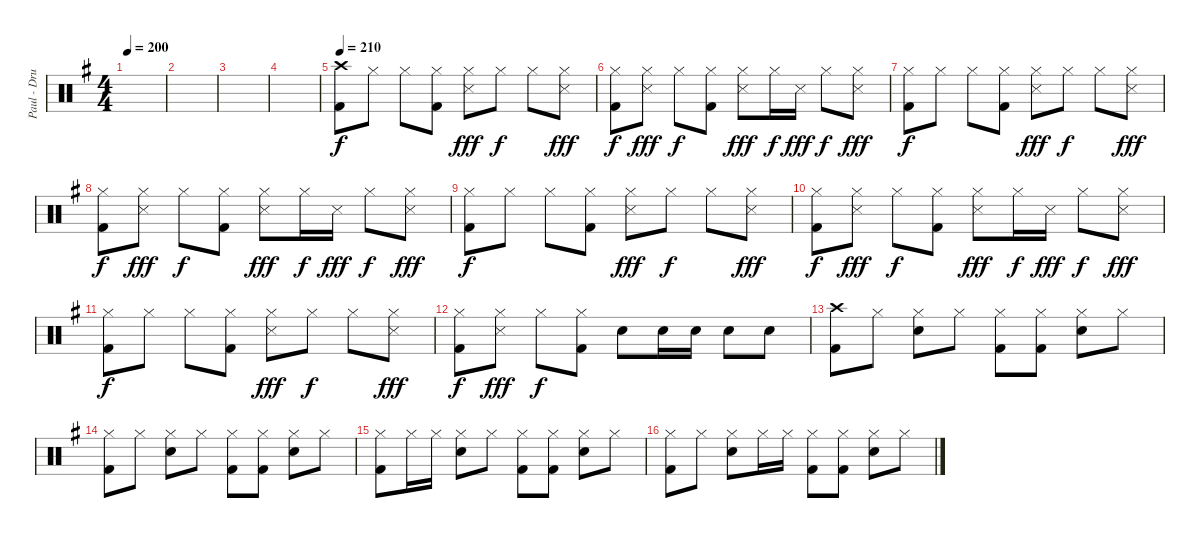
\track ("Paul - Drums" "Paul - Dru") {instrument percussion}
\staff {score}
\articulation defaults
\ts (4 4)
\tempo 200
\clef neutral
\ks g
|
|
|
|
\tempo 210
("Crash high (hit)" "Kick (hit) 2").8{dy f} "Hi-Hat (closed)".8 "Hi-Hat (closed)".8 ("Hi-Hat (closed)" "Kick (hit) 2").8 ("Hi-Hat (closed)" "Snare (side stick) 3").8{dy fff} "Hi-Hat (closed)".8{dy f} "Hi-Hat (closed)".8 ("Hi-Hat (closed)" "Snare (side stick) 3").8{dy fff} |
("Hi-Hat (closed)" "Kick (hit) 2").8{dy f} ("Hi-Hat (closed)" "Snare (side stick) 3").8{dy fff} "Hi-Hat (closed)".8{dy f} ("Hi-Hat (closed)" "Kick (hit) 2").8 ("Hi-Hat (closed)" "Snare (side stick) 3").8{dy fff} "Hi-Hat (closed)".16{dy f} "Snare (side stick) 3".16{dy fff} "Hi-Hat (closed)".8{dy f} ("Hi-Hat (closed)" "Snare (side stick) 3").8{dy fff} |
("Hi-Hat (closed)" "Kick (hit) 2").8{dy f} "Hi-Hat (closed)".8 "Hi-Hat (closed)".8 ("Hi-Hat (closed)" "Kick (hit) 2").8 ("Hi-Hat (closed)" "Snare (side stick) 3").8{dy fff} "Hi-Hat (closed)".8{dy f} "Hi-Hat (closed)".8 ("Hi-Hat (closed)" "Snare (side stick) 3").8{dy fff} |
("Hi-Hat (closed)" "Kick (hit) 2").8{dy f} ("Hi-Hat (closed)" "Snare (side stick) 3").8{dy fff} "Hi-Hat (closed)".8{dy f} ("Hi-Hat (closed)" "Kick (hit) 2").8 ("Hi-Hat (closed)" "Snare (side stick) 3").8{dy fff} "Hi-Hat (closed)".16{dy f} "Snare (side stick) 3".16{dy fff} "Hi-Hat (closed)".8{dy f} ("Hi-Hat (closed)" "Snare (side stick) 3").8{dy fff} |
("Hi-Hat (closed)" "Kick (hit) 2").8{dy f} "Hi-Hat (closed)".8 "Hi-Hat (closed)".8 ("Hi-Hat (closed)" "Kick (hit) 2").8 ("Hi-Hat (closed)" "Snare (side stick) 3").8{dy fff} "Hi-Hat (closed)".8{dy f} "Hi-Hat (closed)".8 ("Hi-Hat (closed)" "Snare (side stick) 3").8{dy fff} |
("Hi-Hat (closed)" "Kick (hit) 2").8{dy f} ("Hi-Hat (closed)" "Snare (side stick) 3").8{dy fff} "Hi-Hat (closed)".8{dy f} ("Hi-Hat (closed)" "Kick (hit) 2").8 ("Hi-Hat (closed)" "Snare (side stick) 3").8{dy fff} "Hi-Hat (closed)".16{dy f} "Snare (side stick) 3".16{dy fff} "Hi-Hat (closed)".8{dy f} ("Hi-Hat (closed)" "Snare (side stick) 3").8{dy fff} |
("Hi-Hat (closed)" "Kick (hit) 2").8{dy f} "Hi-Hat (closed)".8 "Hi-Hat (closed)".8 ("Hi-Hat (closed)" "Kick (hit) 2").8 ("Hi-Hat (closed)" "Snare (side stick) 3").8{dy fff} "Hi-Hat (closed)".8{dy f} "Hi-Hat (closed)".8 ("Hi-Hat (closed)" "Snare (side stick) 3").8{dy fff} |
("Hi-Hat (closed)" "Kick (hit) 2").8{dy f} ("Hi-Hat (closed)" "Snare (side stick) 3").8{dy fff} "Hi-Hat (closed)".8{dy f} ("Hi-Hat (closed)" "Kick (hit) 2").8 "Electric Snare (hit)".8 "Electric Snare (hit)".16 "Electric Snare (hit)".16 "Electric Snare (hit)".8 "Electric Snare (hit)".8 |
("Crash high (hit)" "Kick (hit) 2").8 "Hi-Hat (closed)".8 ("Hi-Hat (closed)" "Electric Snare (hit)").8 "Hi-Hat (closed)".8 ("Hi-Hat (closed)" "Kick (hit) 2").8 ("Hi-Hat (closed)" "Kick (hit) 2").8 ("Hi-Hat (closed)" "Electric Snare (hit)").8 "Hi-Hat (closed)".8 |
("Hi-Hat (closed)" "Kick (hit) 2").8 "Hi-Hat (closed)".8 ("Hi-Hat (closed)" "Electric Snare (hit)").8 "Hi-Hat (closed)".8 ("Hi-Hat (closed)" "Kick (hit) 2").8 ("Hi-Hat (closed)" "Kick (hit) 2").8 ("Hi-Hat (closed)" "Electric Snare (hit)").8 "Hi-Hat (closed)".8 |
("Hi-Hat (closed)" "Kick (hit) 2").8 "Hi-Hat (closed)".16 "Hi-Hat (closed)".16 ("Hi-Hat (closed)" "Electric Snare (hit)").8 "Hi-Hat (closed)".8 ("Hi-Hat (closed)" "Kick (hit) 2").8 ("Hi-Hat (closed)" "Kick (hit) 2").8 ("Hi-Hat (closed)" "Electric Snare (hit)").8 "Hi-Hat (closed)".8 |
("Hi-Hat (closed)" "Kick (hit) 2").8 "Hi-Hat (closed)".8 ("Hi-Hat (closed)" "Electric Snare (hit)").8 "Hi-Hat (closed)".16 "Hi-Hat (closed)".16 ("Hi-Hat (closed)" "Kick (hit) 2").8 ("Hi-Hat (closed)" "Kick (hit) 2").8 ("Hi-Hat (closed)" "Electric Snare (hit)").8 "Hi-Hat (closed)".8
